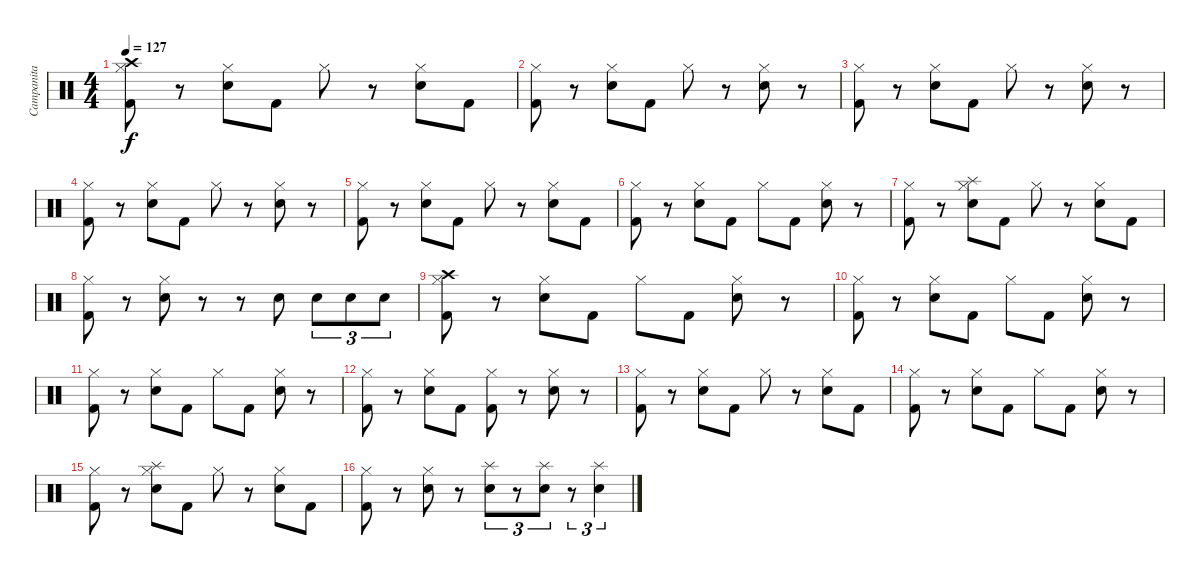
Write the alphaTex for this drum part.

\track ("Campanita" "Campanita") {instrument percussion}
\staff {score}
\articulation defaults
\ts (4 4)
\tempo 127
\clef neutral
\ks c
("Kick (hit) 2" "Hi-Hat (closed)" "Crash high (hit)").8{dy f} r.8 ("Electric Snare (hit)" "Hi-Hat (closed)").8 "Kick (hit) 2".8 "Hi-Hat (closed)".8 r.8 ("Electric Snare (hit)" "Hi-Hat (closed)").8 "Kick (hit) 2".8 |
("Kick (hit) 2" "Hi-Hat (closed)").8 r.8 ("Electric Snare (hit)" "Hi-Hat (closed)").8 "Kick (hit) 2".8 "Hi-Hat (closed)".8 r.8 ("Electric Snare (hit)" "Hi-Hat (closed)").8 r.8 |
("Kick (hit) 2" "Hi-Hat (closed)").8 r.8 ("Electric Snare (hit)" "Hi-Hat (closed)").8 "Kick (hit) 2".8 "Hi-Hat (closed)".8 r.8 ("Electric Snare (hit)" "Hi-Hat (closed)").8 r.8 |
("Kick (hit) 2" "Hi-Hat (closed)").8 r.8 ("Electric Snare (hit)" "Hi-Hat (closed)").8 "Kick (hit) 2".8 "Hi-Hat (closed)".8 r.8 ("Electric Snare (hit)" "Hi-Hat (closed)").8 r.8 |
("Kick (hit) 2" "Hi-Hat (closed)").8 r.8 ("Electric Snare (hit)" "Hi-Hat (closed)").8 "Kick (hit) 2".8 "Hi-Hat (closed)".8 r.8 ("Electric Snare (hit)" "Hi-Hat (closed)").8 "Kick (hit) 2".8 |
("Kick (hit) 2" "Hi-Hat (closed)").8 r.8 ("Electric Snare (hit)" "Hi-Hat (closed)").8 "Kick (hit) 2".8 "Hi-Hat (closed)".8 "Kick (hit) 2".8 ("Electric Snare (hit)" "Hi-Hat (closed)").8 r.8 |
("Kick (hit) 2" "Hi-Hat (closed)").8 r.8 ("Electric Snare (hit)" "Hi-Hat (closed)" "Splash (hit)").8 "Kick (hit) 2".8 "Hi-Hat (closed)".8 r.8 ("Electric Snare (hit)" "Hi-Hat (closed)").8 "Kick (hit) 2".8 |
("Kick (hit) 2" "Hi-Hat (closed)").8 r.8 ("Electric Snare (hit)" "Hi-Hat (closed)").8 r.8 r.8 "Electric Snare (hit)".8 "Electric Snare (hit)".8{tu (3 2)} "Electric Snare (hit)".8{tu (3 2)} "Electric Snare (hit)".8{tu (3 2)} |
("Kick (hit) 2" "Hi-Hat (closed)" "Crash high (hit)").8 r.8 ("Electric Snare (hit)" "Hi-Hat (closed)").8 "Kick (hit) 2".8 "Hi-Hat (closed)".8 "Kick (hit) 2".8 ("Electric Snare (hit)" "Hi-Hat (closed)").8 r.8 |
("Kick (hit) 2" "Hi-Hat (closed)").8 r.8 ("Electric Snare (hit)" "Hi-Hat (closed)").8 "Kick (hit) 2".8 "Hi-Hat (closed)".8 "Kick (hit) 2".8 ("Electric Snare (hit)" "Hi-Hat (closed)").8 r.8 |
("Kick (hit) 2" "Hi-Hat (closed)").8 r.8 ("Electric Snare (hit)" "Hi-Hat (closed)").8 "Kick (hit) 2".8 "Hi-Hat (closed)".8 "Kick (hit) 2".8 ("Electric Snare (hit)" "Hi-Hat (closed)").8 r.8 |
("Kick (hit) 2" "Hi-Hat (closed)").8 r.8 ("Electric Snare (hit)" "Hi-Hat (closed)").8 "Kick (hit) 2".8 ("Kick (hit) 2" "Hi-Hat (closed)").8 r.8 ("Electric Snare (hit)" "Hi-Hat (closed)").8 r.8 |
("Kick (hit) 2" "Hi-Hat (closed)").8 r.8 ("Electric Snare (hit)" "Hi-Hat (closed)").8 "Kick (hit) 2".8 "Hi-Hat (closed)".8 r.8 ("Electric Snare (hit)" "Hi-Hat (closed)").8 "Kick (hit) 2".8 |
("Kick (hit) 2" "Hi-Hat (closed)").8 r.8 ("Electric Snare (hit)" "Hi-Hat (closed)").8 "Kick (hit) 2".8 "Hi-Hat (closed)".8 "Kick (hit) 2".8 ("Electric Snare (hit)" "Hi-Hat (closed)").8 r.8 |
("Kick (hit) 2" "Hi-Hat (closed)").8 r.8 ("Electric Snare (hit)" "Hi-Hat (closed)" "Splash (hit)").8 "Kick (hit) 2".8 "Hi-Hat (closed)".8 r.8 ("Electric Snare (hit)" "Hi-Hat (closed)").8 "Kick (hit) 2".8 |
("Kick (hit) 2" "Hi-Hat (closed)").8 r.8 ("Electric Snare (hit)" "Hi-Hat (closed)").8 r.8 ("Electric Snare (hit)" "Splash (hit)").8{tu (3 2)} r.8{tu (3 2)} ("Electric Snare (hit)" "Splash (hit)").8{tu (3 2)} r.8{tu (3 2)} ("Electric Snare (hit)" "Splash (hit)").4{tu (3 2)}
